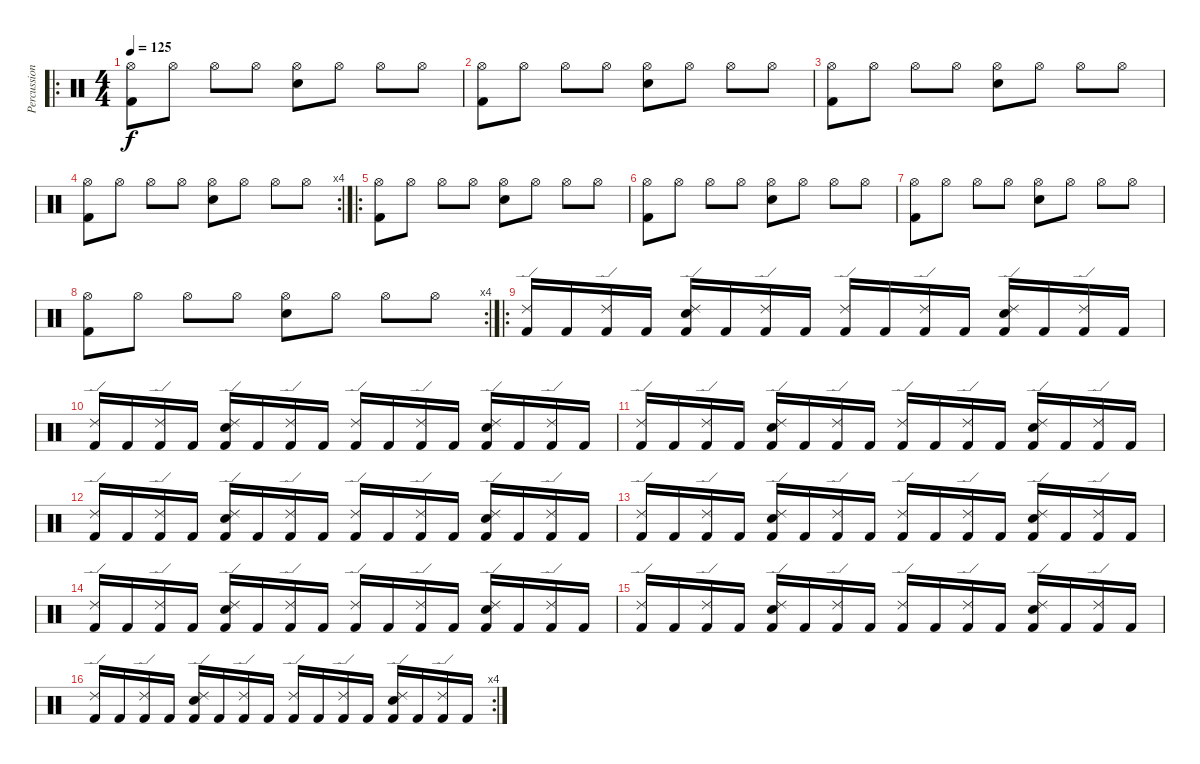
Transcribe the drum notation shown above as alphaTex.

\track ("Percussion" "Percussion") {instrument percussion}
\staff {score}
\articulation defaults
\ro
\ts (4 4)
\tempo 125
\clef neutral
\ks c
("Hi-Hat (open)" "Kick (hit) 2").8{dy f volume 13} "Hi-Hat (open)".8 "Hi-Hat (open)".8 "Hi-Hat (open)".8 ("Hi-Hat (open)" "Electric Snare (hit)").8 "Hi-Hat (open)".8 "Hi-Hat (open)".8 "Hi-Hat (open)".8 |
("Hi-Hat (open)" "Kick (hit) 2").8 "Hi-Hat (open)".8 "Hi-Hat (open)".8 "Hi-Hat (open)".8 ("Hi-Hat (open)" "Electric Snare (hit)").8 "Hi-Hat (open)".8 "Hi-Hat (open)".8 "Hi-Hat (open)".8 |
("Hi-Hat (open)" "Kick (hit) 2").8 "Hi-Hat (open)".8 "Hi-Hat (open)".8 "Hi-Hat (open)".8 ("Hi-Hat (open)" "Electric Snare (hit)").8 "Hi-Hat (open)".8 "Hi-Hat (open)".8 "Hi-Hat (open)".8 |
\rc 4
("Hi-Hat (open)" "Kick (hit) 2").8 "Hi-Hat (open)".8 "Hi-Hat (open)".8 "Hi-Hat (open)".8 ("Hi-Hat (open)" "Electric Snare (hit)").8 "Hi-Hat (open)".8 "Hi-Hat (open)".8 "Hi-Hat (open)".8 |
\ro
("Hi-Hat (open)" "Kick (hit) 2").8{volume 13} "Hi-Hat (open)".8 "Hi-Hat (open)".8 "Hi-Hat (open)".8 ("Hi-Hat (open)" "Electric Snare (hit)").8 "Hi-Hat (open)".8 "Hi-Hat (open)".8 "Hi-Hat (open)".8 |
("Hi-Hat (open)" "Kick (hit) 2").8 "Hi-Hat (open)".8 "Hi-Hat (open)".8 "Hi-Hat (open)".8 ("Hi-Hat (open)" "Electric Snare (hit)").8 "Hi-Hat (open)".8 "Hi-Hat (open)".8 "Hi-Hat (open)".8 |
("Hi-Hat (open)" "Kick (hit) 2").8 "Hi-Hat (open)".8 "Hi-Hat (open)".8 "Hi-Hat (open)".8 ("Hi-Hat (open)" "Electric Snare (hit)").8 "Hi-Hat (open)".8 "Hi-Hat (open)".8 "Hi-Hat (open)".8 |
\rc 4
("Hi-Hat (open)" "Kick (hit) 2").8 "Hi-Hat (open)".8 "Hi-Hat (open)".8 "Hi-Hat (open)".8 ("Hi-Hat (open)" "Electric Snare (hit)").8 "Hi-Hat (open)".8 "Hi-Hat (open)".8 "Hi-Hat (open)".8 |
\ro
("Ride (edge) 2" "Kick (hit) 2").16 "Kick (hit) 2".16 ("Ride (edge) 2" "Kick (hit) 2").16 "Kick (hit) 2".16 ("Ride (edge) 2" "Electric Snare (hit)" "Kick (hit) 2").16 "Kick (hit) 2".16 ("Ride (edge) 2" "Kick (hit) 2").16 "Kick (hit) 2".16 ("Ride (edge) 2" "Kick (hit) 2").16 "Kick (hit) 2".16 ("Ride (edge) 2" "Kick (hit) 2").16 "Kick (hit) 2".16 ("Ride (edge) 2" "Electric Snare (hit)" "Kick (hit) 2").16 "Kick (hit) 2".16 ("Ride (edge) 2" "Kick (hit) 2").16 "Kick (hit) 2".16 |
("Ride (edge) 2" "Kick (hit) 2").16 "Kick (hit) 2".16 ("Ride (edge) 2" "Kick (hit) 2").16 "Kick (hit) 2".16 ("Ride (edge) 2" "Electric Snare (hit)" "Kick (hit) 2").16 "Kick (hit) 2".16 ("Ride (edge) 2" "Kick (hit) 2").16 "Kick (hit) 2".16 ("Ride (edge) 2" "Kick (hit) 2").16 "Kick (hit) 2".16 ("Ride (edge) 2" "Kick (hit) 2").16 "Kick (hit) 2".16 ("Ride (edge) 2" "Electric Snare (hit)" "Kick (hit) 2").16 "Kick (hit) 2".16 ("Ride (edge) 2" "Kick (hit) 2").16 "Kick (hit) 2".16 |
("Ride (edge) 2" "Kick (hit) 2").16 "Kick (hit) 2".16 ("Ride (edge) 2" "Kick (hit) 2").16 "Kick (hit) 2".16 ("Ride (edge) 2" "Electric Snare (hit)" "Kick (hit) 2").16 "Kick (hit) 2".16 ("Ride (edge) 2" "Kick (hit) 2").16 "Kick (hit) 2".16 ("Ride (edge) 2" "Kick (hit) 2").16 "Kick (hit) 2".16 ("Ride (edge) 2" "Kick (hit) 2").16 "Kick (hit) 2".16 ("Ride (edge) 2" "Electric Snare (hit)" "Kick (hit) 2").16 "Kick (hit) 2".16 ("Ride (edge) 2" "Kick (hit) 2").16 "Kick (hit) 2".16 |
("Ride (edge) 2" "Kick (hit) 2").16 "Kick (hit) 2".16 ("Ride (edge) 2" "Kick (hit) 2").16 "Kick (hit) 2".16 ("Ride (edge) 2" "Electric Snare (hit)" "Kick (hit) 2").16 "Kick (hit) 2".16 ("Ride (edge) 2" "Kick (hit) 2").16 "Kick (hit) 2".16 ("Ride (edge) 2" "Kick (hit) 2").16 "Kick (hit) 2".16 ("Ride (edge) 2" "Kick (hit) 2").16 "Kick (hit) 2".16 ("Ride (edge) 2" "Electric Snare (hit)" "Kick (hit) 2").16 "Kick (hit) 2".16 ("Ride (edge) 2" "Kick (hit) 2").16 "Kick (hit) 2".16 |
("Ride (edge) 2" "Kick (hit) 2").16 "Kick (hit) 2".16 ("Ride (edge) 2" "Kick (hit) 2").16 "Kick (hit) 2".16 ("Ride (edge) 2" "Electric Snare (hit)" "Kick (hit) 2").16 "Kick (hit) 2".16 ("Ride (edge) 2" "Kick (hit) 2").16 "Kick (hit) 2".16 ("Ride (edge) 2" "Kick (hit) 2").16 "Kick (hit) 2".16 ("Ride (edge) 2" "Kick (hit) 2").16 "Kick (hit) 2".16 ("Ride (edge) 2" "Electric Snare (hit)" "Kick (hit) 2").16 "Kick (hit) 2".16 ("Ride (edge) 2" "Kick (hit) 2").16 "Kick (hit) 2".16 |
("Ride (edge) 2" "Kick (hit) 2").16 "Kick (hit) 2".16 ("Ride (edge) 2" "Kick (hit) 2").16 "Kick (hit) 2".16 ("Ride (edge) 2" "Electric Snare (hit)" "Kick (hit) 2").16 "Kick (hit) 2".16 ("Ride (edge) 2" "Kick (hit) 2").16 "Kick (hit) 2".16 ("Ride (edge) 2" "Kick (hit) 2").16 "Kick (hit) 2".16 ("Ride (edge) 2" "Kick (hit) 2").16 "Kick (hit) 2".16 ("Ride (edge) 2" "Electric Snare (hit)" "Kick (hit) 2").16 "Kick (hit) 2".16 ("Ride (edge) 2" "Kick (hit) 2").16 "Kick (hit) 2".16 |
("Ride (edge) 2" "Kick (hit) 2").16 "Kick (hit) 2".16 ("Ride (edge) 2" "Kick (hit) 2").16 "Kick (hit) 2".16 ("Ride (edge) 2" "Electric Snare (hit)" "Kick (hit) 2").16 "Kick (hit) 2".16 ("Ride (edge) 2" "Kick (hit) 2").16 "Kick (hit) 2".16 ("Ride (edge) 2" "Kick (hit) 2").16 "Kick (hit) 2".16 ("Ride (edge) 2" "Kick (hit) 2").16 "Kick (hit) 2".16 ("Ride (edge) 2" "Electric Snare (hit)" "Kick (hit) 2").16 "Kick (hit) 2".16 ("Ride (edge) 2" "Kick (hit) 2").16 "Kick (hit) 2".16 |
\rc 4
("Ride (edge) 2" "Kick (hit) 2").16 "Kick (hit) 2".16 ("Ride (edge) 2" "Kick (hit) 2").16 "Kick (hit) 2".16 ("Ride (edge) 2" "Electric Snare (hit)" "Kick (hit) 2").16 "Kick (hit) 2".16 ("Ride (edge) 2" "Kick (hit) 2").16 "Kick (hit) 2".16 ("Ride (edge) 2" "Kick (hit) 2").16 "Kick (hit) 2".16 ("Ride (edge) 2" "Kick (hit) 2").16 "Kick (hit) 2".16 ("Ride (edge) 2" "Electric Snare (hit)" "Kick (hit) 2").16 "Kick (hit) 2".16 ("Ride (edge) 2" "Kick (hit) 2").16 "Kick (hit) 2".16
